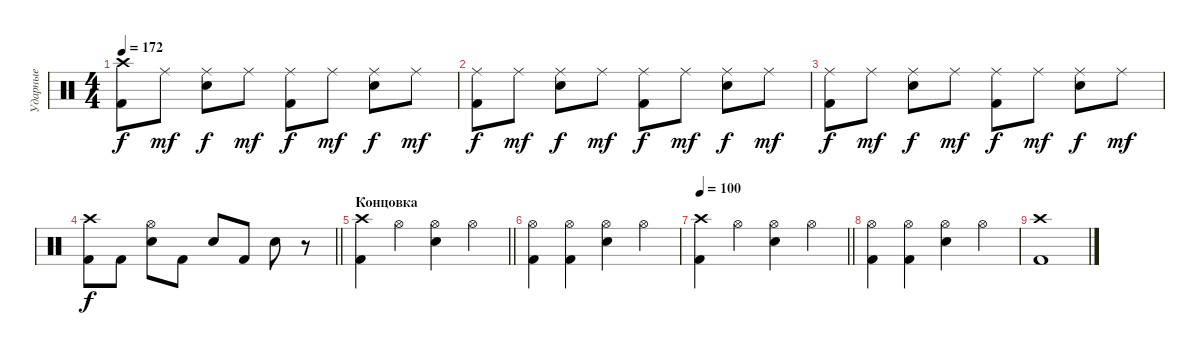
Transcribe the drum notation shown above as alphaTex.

\track ("Ударные" "Ударные") {instrument percussion}
\staff {score}
\articulation defaults
\ts (4 4)
\tempo 172
\clef neutral
\ks c
("Crash high (hit)" "Kick (hit) 2").8{dy f} "Ride (middle)".8{dy mf} ("Ride (middle)" "Snare (hit) 2").8{dy f} "Ride (middle)".8{dy mf} ("Ride (middle)" "Kick (hit) 2").8{dy f} "Ride (middle)".8{dy mf} ("Ride (middle)" "Snare (hit) 2").8{dy f} "Ride (middle)".8{dy mf} |
("Ride (middle)" "Kick (hit) 2").8{dy f} "Ride (middle)".8{dy mf} ("Ride (middle)" "Snare (hit) 2").8{dy f} "Ride (middle)".8{dy mf} ("Ride (middle)" "Kick (hit) 2").8{dy f} "Ride (middle)".8{dy mf} ("Ride (middle)" "Snare (hit) 2").8{dy f} "Ride (middle)".8{dy mf} |
("Ride (middle)" "Kick (hit) 2").8{dy f} "Ride (middle)".8{dy mf} ("Ride (middle)" "Snare (hit) 2").8{dy f} "Ride (middle)".8{dy mf} ("Ride (middle)" "Kick (hit) 2").8{dy f} "Ride (middle)".8{dy mf} ("Ride (middle)" "Snare (hit) 2").8{dy f} "Ride (middle)".8{dy mf} |
\barLineRight lightlight
("Crash high (hit)" "Kick (hit) 2").8{dy f} "Kick (hit) 2".8 ("Hi-Hat (open)" "Snare (hit) 2").8 "Kick (hit) 2".8 "Snare (hit) 2".8 "Kick (hit) 2".8 "Snare (hit) 2".8 r.8 |
\section ("" "Концовка")
\barLineRight lightlight
("Crash high (hit)" "Kick (hit) 2").4 "Hi-Hat (open)".4 ("Hi-Hat (open)" "Snare (hit) 2").4 "Hi-Hat (open)".4 |
("Hi-Hat (open)" "Kick (hit) 2").4 ("Hi-Hat (open)" "Kick (hit) 2").4 ("Hi-Hat (open)" "Snare (hit) 2").4 "Hi-Hat (open)".4 |
\tempo 100
\barLineRight lightlight
("Crash high (hit)" "Kick (hit) 2").4 "Hi-Hat (open)".4 ("Hi-Hat (open)" "Snare (hit) 2").4 "Hi-Hat (open)".4 |
("Hi-Hat (open)" "Kick (hit) 2").4 ("Hi-Hat (open)" "Kick (hit) 2").4 ("Hi-Hat (open)" "Snare (hit) 2").4 "Hi-Hat (open)".4 |
("Crash high (hit)" "Kick (hit) 2").1
